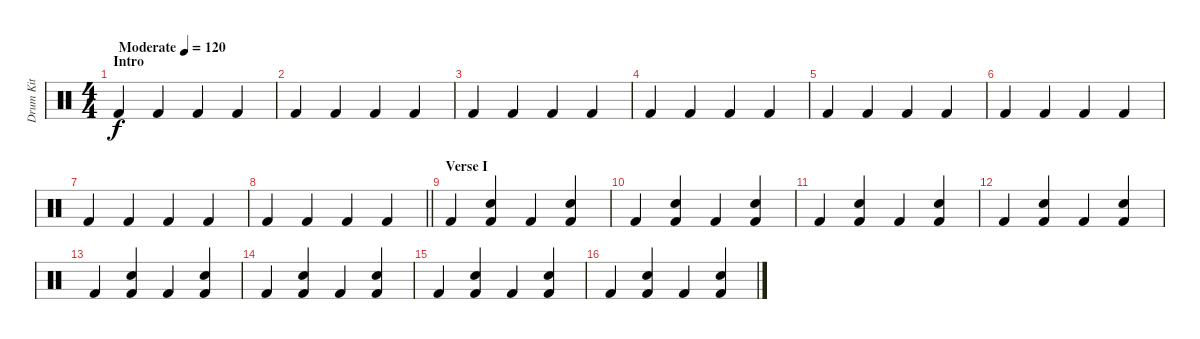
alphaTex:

\track ("Drum Kit" "Drum Kit") {instrument percussion}
\staff {score}
\articulation defaults
\ts (4 4)
\section ("" "Intro")
\tempo (120 "Moderate")
\clef neutral
\ks c "Kick (hit) 2".4{dy f} "Kick (hit) 2".4 "Kick (hit) 2".4 "Kick (hit) 2".4
|
"Kick (hit) 2".4 "Kick (hit) 2".4 "Kick (hit) 2".4 "Kick (hit) 2".4 |
"Kick (hit) 2".4 "Kick (hit) 2".4 "Kick (hit) 2".4 "Kick (hit) 2".4 |
"Kick (hit) 2".4 "Kick (hit) 2".4 "Kick (hit) 2".4 "Kick (hit) 2".4 |
"Kick (hit) 2".4 "Kick (hit) 2".4 "Kick (hit) 2".4 "Kick (hit) 2".4 |
"Kick (hit) 2".4 "Kick (hit) 2".4 "Kick (hit) 2".4 "Kick (hit) 2".4 |
"Kick (hit) 2".4 "Kick (hit) 2".4 "Kick (hit) 2".4 "Kick (hit) 2".4 |
\barLineRight lightlight "Kick (hit) 2".4 "Kick (hit) 2".4 "Kick (hit) 2".4 "Kick (hit) 2".4
|
\section ("" "Verse I")
"Kick (hit) 2".4 ("Electric Snare (hit)" "Kick (hit) 2").4 "Kick (hit) 2".4 ("Electric Snare (hit)" "Kick (hit) 2").4 |
"Kick (hit) 2".4 ("Electric Snare (hit)" "Kick (hit) 2").4 "Kick (hit) 2".4 ("Electric Snare (hit)" "Kick (hit) 2").4 |
"Kick (hit) 2".4 ("Electric Snare (hit)" "Kick (hit) 2").4 "Kick (hit) 2".4 ("Electric Snare (hit)" "Kick (hit) 2").4 |
"Kick (hit) 2".4 ("Electric Snare (hit)" "Kick (hit) 2").4 "Kick (hit) 2".4 ("Electric Snare (hit)" "Kick (hit) 2").4 |
"Kick (hit) 2".4 ("Electric Snare (hit)" "Kick (hit) 2").4 "Kick (hit) 2".4 ("Electric Snare (hit)" "Kick (hit) 2").4 |
"Kick (hit) 2".4 ("Electric Snare (hit)" "Kick (hit) 2").4 "Kick (hit) 2".4 ("Electric Snare (hit)" "Kick (hit) 2").4 |
"Kick (hit) 2".4 ("Electric Snare (hit)" "Kick (hit) 2").4 "Kick (hit) 2".4 ("Electric Snare (hit)" "Kick (hit) 2").4 |
"Kick (hit) 2".4 ("Electric Snare (hit)" "Kick (hit) 2").4 "Kick (hit) 2".4 ("Electric Snare (hit)" "Kick (hit) 2").4
